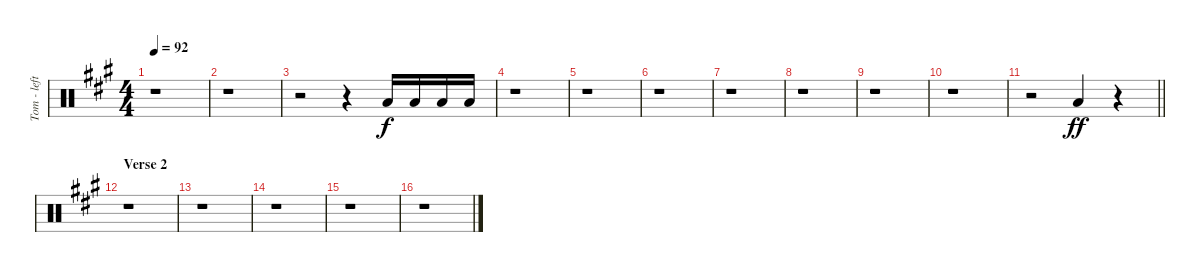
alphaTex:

\track ("Tom - left" "Tom - left") {instrument percussion}
\staff {score}
\articulation defaults
\ts (4 4)
\tempo 92
\clef neutral
\ks f#minor
r.1{dy ff} |
r.1 |
r.2 r.4 "Low Tom (hit)".16{dy f beam Up} "Low Tom (hit)".16{beam Up} "Low Tom (hit)".16{beam Up} "Low Tom (hit)".16{beam Up} |
r.1 |
r.1 |
r.1 |
r.1 |
r.1 |
r.1 |
r.1 |
\barLineRight lightlight
r.2 "Low Tom (hit)".4{dy ff beam Up} r.4 |
\section ("" "Verse 2")
r.1 |
r.1 |
r.1 |
r.1 |
r.1
